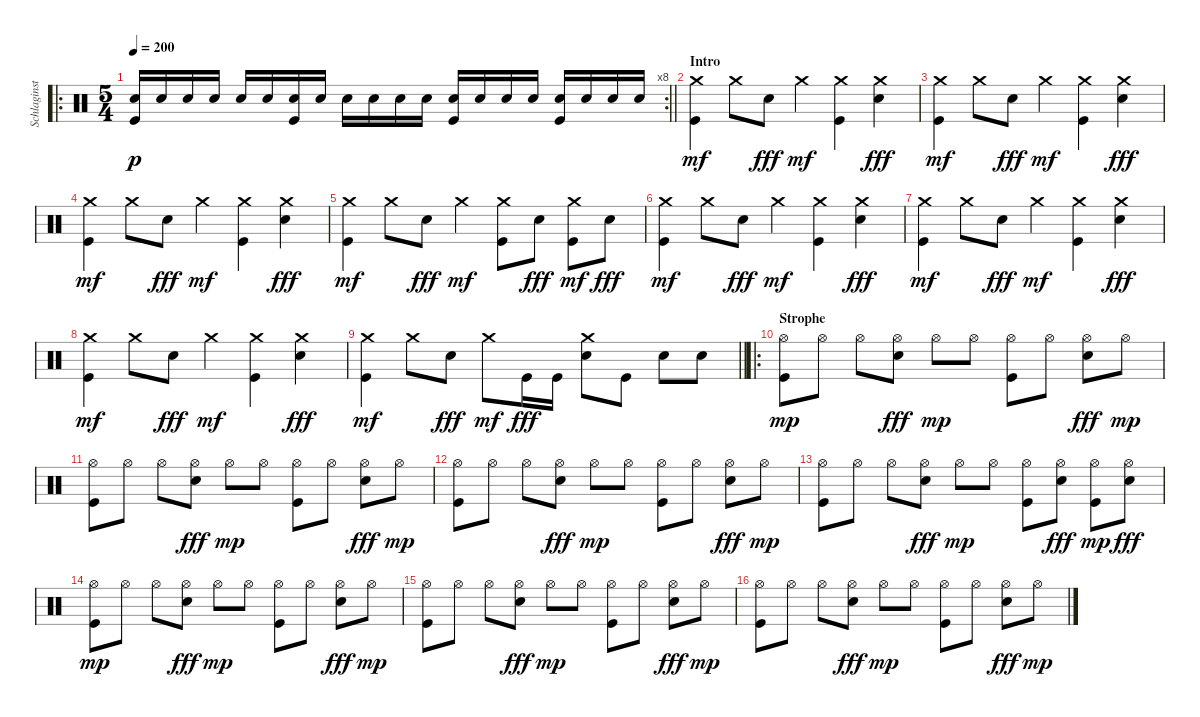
\track ("Schlaginstrumente - Auswahl" "Schlaginst") {instrument percussion}
\staff {score}
\articulation defaults
\ro
\rc 8
\ts (5 4)
\tempo 200
\clef neutral
\barLineRight lightlight
\ks c
("Snare (hit) 2" "Kick (hit)").16{dy p} "Snare (hit) 2".16 "Snare (hit) 2".16 "Snare (hit) 2".16 "Snare (hit) 2".16 "Snare (hit) 2".16 ("Snare (hit) 2" "Kick (hit)").16 "Snare (hit) 2".16 "Snare (hit) 2".16 "Snare (hit) 2".16 "Snare (hit) 2".16 "Snare (hit) 2".16 ("Snare (hit) 2" "Kick (hit)").16 "Snare (hit) 2".16 "Snare (hit) 2".16 "Snare (hit) 2".16 ("Snare (hit) 2" "Kick (hit)").16 "Snare (hit) 2".16 "Snare (hit) 2".16 "Snare (hit) 2".16 |
\section ("" "Intro")
("Crash medium (hit)" "Kick (hit)").4{dy mf} "Crash medium (hit)".8 "Snare (hit) 2".8{dy fff} "Crash medium (hit)".4{dy mf} ("Crash medium (hit)" "Kick (hit)").4 ("Crash medium (hit)" "Snare (hit) 2").4{dy fff} |
("Crash medium (hit)" "Kick (hit)").4{dy mf} "Crash medium (hit)".8 "Snare (hit) 2".8{dy fff} "Crash medium (hit)".4{dy mf} ("Crash medium (hit)" "Kick (hit)").4 ("Crash medium (hit)" "Snare (hit) 2").4{dy fff} |
("Crash medium (hit)" "Kick (hit)").4{dy mf} "Crash medium (hit)".8 "Snare (hit) 2".8{dy fff} "Crash medium (hit)".4{dy mf} ("Crash medium (hit)" "Kick (hit)").4 ("Crash medium (hit)" "Snare (hit) 2").4{dy fff} |
("Crash medium (hit)" "Kick (hit)").4{dy mf} "Crash medium (hit)".8 "Snare (hit) 2".8{dy fff} "Crash medium (hit)".4{dy mf} ("Crash medium (hit)" "Kick (hit)").8 "Snare (hit) 2".8{dy fff} ("Crash medium (hit)" "Kick (hit)").8{dy mf} "Snare (hit) 2".8{dy fff} |
("Crash medium (hit)" "Kick (hit)").4{dy mf} "Crash medium (hit)".8 "Snare (hit) 2".8{dy fff} "Crash medium (hit)".4{dy mf} ("Crash medium (hit)" "Kick (hit)").4 ("Crash medium (hit)" "Snare (hit) 2").4{dy fff} |
("Crash medium (hit)" "Kick (hit)").4{dy mf} "Crash medium (hit)".8 "Snare (hit) 2".8{dy fff} "Crash medium (hit)".4{dy mf} ("Crash medium (hit)" "Kick (hit)").4 ("Crash medium (hit)" "Snare (hit) 2").4{dy fff} |
("Crash medium (hit)" "Kick (hit)").4{dy mf} "Crash medium (hit)".8 "Snare (hit) 2".8{dy fff} "Crash medium (hit)".4{dy mf} ("Crash medium (hit)" "Kick (hit)").4 ("Crash medium (hit)" "Snare (hit) 2").4{dy fff} |
\barLineRight lightlight
("Crash medium (hit)" "Kick (hit)").4{dy mf} "Crash medium (hit)".8 "Snare (hit) 2".8{dy fff} "Crash medium (hit)".8{dy mf} "Kick (hit)".16{dy fff} "Kick (hit)".16 ("Crash medium (hit)" "Snare (hit) 2").8 "Kick (hit)".8 "Snare (hit) 2".8 "Snare (hit) 2".8 |
\ro
\section ("" "Strophe")
("Hi-Hat (open)" "Kick (hit)").8{dy mp} "Hi-Hat (open)".8 "Hi-Hat (open)".8 ("Hi-Hat (open)" "Snare (hit) 2").8{dy fff} "Hi-Hat (open)".8{dy mp} "Hi-Hat (open)".8 ("Hi-Hat (open)" "Kick (hit)").8 "Hi-Hat (open)".8 ("Hi-Hat (open)" "Snare (hit) 2").8{dy fff} "Hi-Hat (open)".8{dy mp} |
("Hi-Hat (open)" "Kick (hit)").8 "Hi-Hat (open)".8 "Hi-Hat (open)".8 ("Hi-Hat (open)" "Snare (hit) 2").8{dy fff} "Hi-Hat (open)".8{dy mp} "Hi-Hat (open)".8 ("Hi-Hat (open)" "Kick (hit)").8 "Hi-Hat (open)".8 ("Hi-Hat (open)" "Snare (hit) 2").8{dy fff} "Hi-Hat (open)".8{dy mp} |
("Hi-Hat (open)" "Kick (hit)").8 "Hi-Hat (open)".8 "Hi-Hat (open)".8 ("Hi-Hat (open)" "Snare (hit) 2").8{dy fff} "Hi-Hat (open)".8{dy mp} "Hi-Hat (open)".8 ("Hi-Hat (open)" "Kick (hit)").8 "Hi-Hat (open)".8 ("Hi-Hat (open)" "Snare (hit) 2").8{dy fff} "Hi-Hat (open)".8{dy mp} |
("Hi-Hat (open)" "Kick (hit)").8 "Hi-Hat (open)".8 "Hi-Hat (open)".8 ("Hi-Hat (open)" "Snare (hit) 2").8{dy fff} "Hi-Hat (open)".8{dy mp} "Hi-Hat (open)".8 ("Hi-Hat (open)" "Kick (hit)").8 ("Hi-Hat (open)" "Snare (hit) 2").8{dy fff} ("Hi-Hat (open)" "Kick (hit)").8{dy mp} ("Hi-Hat (open)" "Snare (hit) 2").8{dy fff} |
("Hi-Hat (open)" "Kick (hit)").8{dy mp} "Hi-Hat (open)".8 "Hi-Hat (open)".8 ("Hi-Hat (open)" "Snare (hit) 2").8{dy fff} "Hi-Hat (open)".8{dy mp} "Hi-Hat (open)".8 ("Hi-Hat (open)" "Kick (hit)").8 "Hi-Hat (open)".8 ("Hi-Hat (open)" "Snare (hit) 2").8{dy fff} "Hi-Hat (open)".8{dy mp} |
("Hi-Hat (open)" "Kick (hit)").8 "Hi-Hat (open)".8 "Hi-Hat (open)".8 ("Hi-Hat (open)" "Snare (hit) 2").8{dy fff} "Hi-Hat (open)".8{dy mp} "Hi-Hat (open)".8 ("Hi-Hat (open)" "Kick (hit)").8 "Hi-Hat (open)".8 ("Hi-Hat (open)" "Snare (hit) 2").8{dy fff} "Hi-Hat (open)".8{dy mp} |
("Hi-Hat (open)" "Kick (hit)").8 "Hi-Hat (open)".8 "Hi-Hat (open)".8 ("Hi-Hat (open)" "Snare (hit) 2").8{dy fff} "Hi-Hat (open)".8{dy mp} "Hi-Hat (open)".8 ("Hi-Hat (open)" "Kick (hit)").8 "Hi-Hat (open)".8 ("Hi-Hat (open)" "Snare (hit) 2").8{dy fff} "Hi-Hat (open)".8{dy mp}
